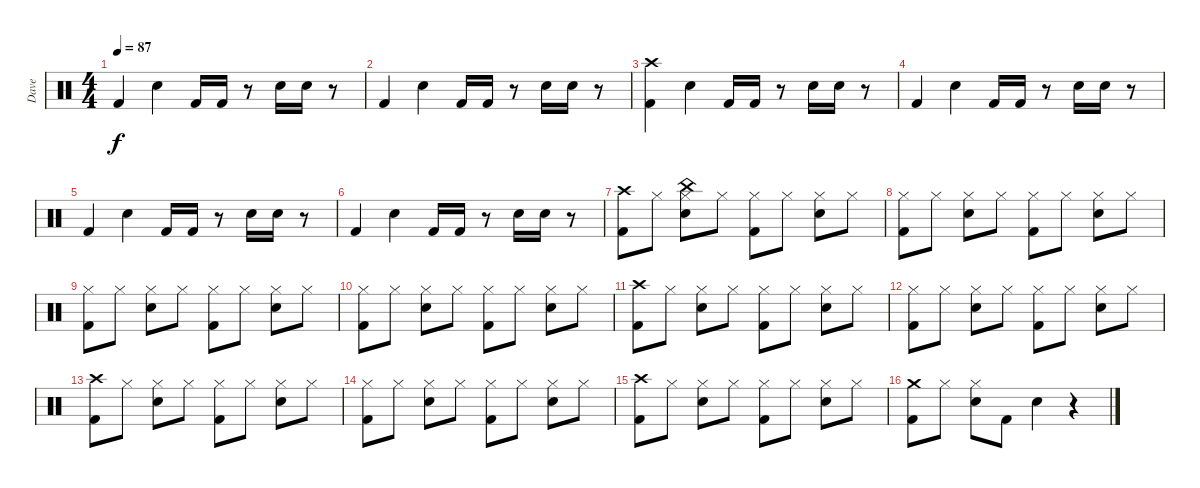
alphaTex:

\track ("Dave" "Dave") {instrument percussion}
\staff {score}
\articulation defaults
\ts (4 4)
\tempo 87
\clef neutral
\ks c "Kick (hit) 2".4{dy f} "Snare (hit) 2".4 "Kick (hit) 2".16 "Kick (hit) 2".16
r.8 "Snare (hit) 2".16 "Snare (hit) 2".16 r.8 |
"Kick (hit) 2".4 "Snare (hit) 2".4 "Kick (hit) 2".16 "Kick (hit) 2".16 r.8 "Snare (hit) 2".16 "Snare (hit) 2".16 r.8 |
("Crash high (hit)" "Kick (hit) 2").4 "Snare (hit) 2".4 "Kick (hit) 2".16 "Kick (hit) 2".16 r.8 "Snare (hit) 2".16 "Snare (hit) 2".16 r.8 |
"Kick (hit) 2".4 "Snare (hit) 2".4 "Kick (hit) 2".16 "Kick (hit) 2".16 r.8 "Snare (hit) 2".16 "Snare (hit) 2".16 r.8 |
"Kick (hit) 2".4 "Snare (hit) 2".4 "Kick (hit) 2".16 "Kick (hit) 2".16 r.8 "Snare (hit) 2".16 "Snare (hit) 2".16 r.8 |
"Kick (hit) 2".4 "Snare (hit) 2".4 "Kick (hit) 2".16 "Kick (hit) 2".16 r.8 "Snare (hit) 2".16 "Snare (hit) 2".16 r.8 |
("Crash high (hit)" "Kick (hit) 2").8 "Hi-Hat (closed)".8 ("Hi-Hat (closed)" "Snare (hit) 2" "China (hit)").8 "Hi-Hat (closed)".8 ("Hi-Hat (closed)" "Kick (hit) 2").8 "Hi-Hat (closed)".8 ("Hi-Hat (closed)" "Snare (hit) 2").8 "Hi-Hat (closed)".8 |
("Hi-Hat (closed)" "Kick (hit) 2").8 "Hi-Hat (closed)".8 ("Hi-Hat (closed)" "Snare (hit) 2").8 "Hi-Hat (closed)".8 ("Hi-Hat (closed)" "Kick (hit) 2").8 "Hi-Hat (closed)".8 ("Hi-Hat (closed)" "Snare (hit) 2").8 "Hi-Hat (closed)".8 |
("Hi-Hat (closed)" "Kick (hit) 2").8 "Hi-Hat (closed)".8 ("Hi-Hat (closed)" "Snare (hit) 2").8 "Hi-Hat (closed)".8 ("Hi-Hat (closed)" "Kick (hit) 2").8 "Hi-Hat (closed)".8 ("Hi-Hat (closed)" "Snare (hit) 2").8 "Hi-Hat (closed)".8 |
("Hi-Hat (closed)" "Kick (hit) 2").8 "Hi-Hat (closed)".8 ("Hi-Hat (closed)" "Snare (hit) 2").8 "Hi-Hat (closed)".8 ("Hi-Hat (closed)" "Kick (hit) 2").8 "Hi-Hat (closed)".8 ("Hi-Hat (closed)" "Snare (hit) 2").8 "Hi-Hat (closed)".8 |
("Crash high (hit)" "Kick (hit) 2").8 "Hi-Hat (closed)".8 ("Hi-Hat (closed)" "Snare (hit) 2").8 "Hi-Hat (closed)".8 ("Hi-Hat (closed)" "Kick (hit) 2").8 "Hi-Hat (closed)".8 ("Hi-Hat (closed)" "Snare (hit) 2").8 "Hi-Hat (closed)".8 |
("Hi-Hat (closed)" "Kick (hit) 2").8 "Hi-Hat (closed)".8 ("Hi-Hat (closed)" "Snare (hit) 2").8 "Hi-Hat (closed)".8 ("Hi-Hat (closed)" "Kick (hit) 2").8 "Hi-Hat (closed)".8 ("Hi-Hat (closed)" "Snare (hit) 2").8 "Hi-Hat (closed)".8 |
("Crash high (hit)" "Kick (hit) 2").8 "Hi-Hat (closed)".8 ("Hi-Hat (closed)" "Snare (hit) 2").8 "Hi-Hat (closed)".8 ("Hi-Hat (closed)" "Kick (hit) 2").8 "Hi-Hat (closed)".8 ("Hi-Hat (closed)" "Snare (hit) 2").8 "Hi-Hat (closed)".8 |
("Hi-Hat (closed)" "Kick (hit) 2").8 "Hi-Hat (closed)".8 ("Hi-Hat (closed)" "Snare (hit) 2").8 "Hi-Hat (closed)".8 ("Hi-Hat (closed)" "Kick (hit) 2").8 "Hi-Hat (closed)".8 ("Hi-Hat (closed)" "Snare (hit) 2").8 "Hi-Hat (closed)".8 |
("Crash high (hit)" "Kick (hit) 2").8 "Hi-Hat (closed)".8 ("Hi-Hat (closed)" "Snare (hit) 2").8 "Hi-Hat (closed)".8 ("Hi-Hat (closed)" "Kick (hit) 2").8 "Hi-Hat (closed)".8 ("Hi-Hat (closed)" "Snare (hit) 2").8 "Hi-Hat (closed)".8 |
("Crash medium (hit)" "Kick (hit) 2").8 "Hi-Hat (closed)".8 ("Hi-Hat (closed)" "Snare (hit) 2").8 "Kick (hit) 2".8 "Snare (hit) 2".4 r.4
